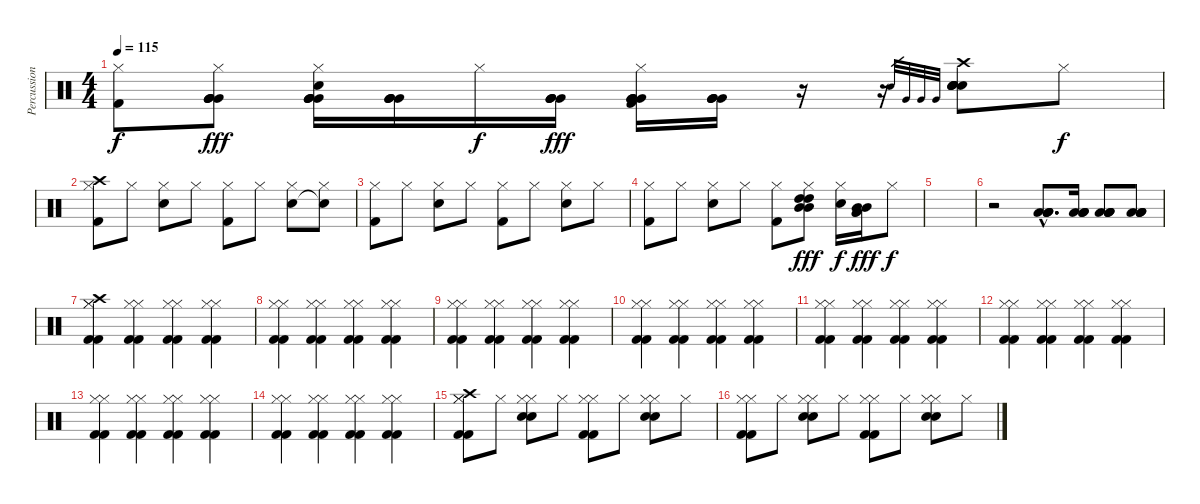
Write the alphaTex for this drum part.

\track ("Percussion" "Percussion") {instrument percussion}
\staff {score}
\articulation defaults
\ts (4 4)
\tempo 115
\clef neutral
\ks c
("Hi-Hat (closed)" "Kick (hit) 2").8{dy f} ("Hi-Hat (closed)" "Very Low Tom (hit)" "Very Low Tom (hit)" "Very Low Tom (hit)" "Very Low Tom (hit)").8{dy fff} ("Hi-Hat (closed)" "Electric Snare (hit)" "Very Low Tom (hit)" "Very Low Tom (hit)" "Very Low Tom (hit)" "Very Low Tom (hit)").16 ("Very Low Tom (hit)" "Very Low Tom (hit)" "Very Low Tom (hit)" "Very Low Tom (hit)").16 "Hi-Hat (closed)".16{dy f} ("Very Low Tom (hit)" "Very Low Tom (hit)" "Very Low Tom (hit)" "Very Low Tom (hit)").16{dy fff} ("Hi-Hat (closed)" "Kick (hit) 2" "Very Low Tom (hit)" "Very Low Tom (hit)" "Very Low Tom (hit)" "Very Low Tom (hit)").16 ("Very Low Tom (hit)" "Very Low Tom (hit)" "Very Low Tom (hit)" "Very Low Tom (hit)").16 r.16 r.16 "Snare (hit)".32{gr} "Very Low Tom (hit)".32{gr} "Very Low Tom (hit)".32{gr} "Very Low Tom (hit)".32{gr} ("Crash high (hit)" "Electric Snare (hit)" "Electric Snare (hit)" "Electric Snare (hit)" "Electric Snare (hit)" "Electric Snare (hit)").8 "Hi-Hat (closed)".8{dy f} |
("Hi-Hat (closed)" "Kick (hit) 2" "Crash high (hit)").8 "Hi-Hat (closed)".8 ("Hi-Hat (closed)" "Electric Snare (hit)").8 "Hi-Hat (closed)".8 ("Hi-Hat (closed)" "Kick (hit) 2").8 "Hi-Hat (closed)".8 ("Hi-Hat (closed)" "Electric Snare (hit)").8 ("Hi-Hat (closed)" "Snare (hit)"{t}).8 |
("Hi-Hat (closed)" "Kick (hit) 2").8 "Hi-Hat (closed)".8 ("Hi-Hat (closed)" "Electric Snare (hit)").8 "Hi-Hat (closed)".8 ("Hi-Hat (closed)" "Kick (hit) 2").8 "Hi-Hat (closed)".8 ("Hi-Hat (closed)" "Electric Snare (hit)").8 "Hi-Hat (closed)".8 |
("Hi-Hat (closed)" "Kick (hit) 2").8 "Hi-Hat (closed)".8 ("Hi-Hat (closed)" "Electric Snare (hit)").8 "Hi-Hat (closed)".8 ("Hi-Hat (closed)" "Kick (hit) 2").8 ("Hi-Hat (closed)" "High Tom (hit)" "High Tom (hit)" "Mid Tom (hit)" "Mid Tom (hit)").8{dy fff} ("Hi-Hat (closed)" "Electric Snare (hit)").16{dy f} ("Mid Tom (hit)" "Mid Tom (hit)" "Low Tom (hit)" "Low Tom (hit)").16{dy fff} "Hi-Hat (closed)".8{dy f} |
|
r.2 ("Low Tom (hit)"{hac} "Low Floor Tom (hit)"{hac} "Low Tom (hit)"{hac} "Low Floor Tom (hit)"{hac}).8{d} ("Low Tom (hit)" "Low Floor Tom (hit)" "Low Floor Tom (hit)" "Low Floor Tom (hit)").16 ("Low Floor Tom (hit)" "Low Floor Tom (hit)" "Low Floor Tom (hit)" "Low Floor Tom (hit)").8 ("Low Floor Tom (hit)" "Low Floor Tom (hit)" "Low Floor Tom (hit)" "Low Floor Tom (hit)").8 |
("Kick (hit) 2" "Kick (hit) 2" "Hi-Hat (closed)" "Hi-Hat (closed)" "Crash high (hit)").4 ("Kick (hit) 2" "Kick (hit) 2" "Hi-Hat (closed)" "Hi-Hat (closed)").4 ("Kick (hit) 2" "Kick (hit) 2" "Hi-Hat (closed)" "Hi-Hat (closed)").4 ("Kick (hit) 2" "Kick (hit) 2" "Hi-Hat (closed)" "Hi-Hat (closed)").4 |
("Kick (hit) 2" "Kick (hit) 2" "Hi-Hat (closed)" "Hi-Hat (closed)").4 ("Kick (hit) 2" "Kick (hit) 2" "Hi-Hat (closed)" "Hi-Hat (closed)").4 ("Kick (hit) 2" "Kick (hit) 2" "Hi-Hat (closed)" "Hi-Hat (closed)").4 ("Kick (hit) 2" "Kick (hit) 2" "Hi-Hat (closed)" "Hi-Hat (closed)").4 |
("Kick (hit) 2" "Kick (hit) 2" "Hi-Hat (closed)" "Hi-Hat (closed)").4 ("Kick (hit) 2" "Kick (hit) 2" "Hi-Hat (closed)" "Hi-Hat (closed)").4 ("Kick (hit) 2" "Kick (hit) 2" "Hi-Hat (closed)" "Hi-Hat (closed)").4 ("Kick (hit) 2" "Kick (hit) 2" "Hi-Hat (closed)" "Hi-Hat (closed)").4 |
("Kick (hit) 2" "Kick (hit) 2" "Hi-Hat (closed)" "Hi-Hat (closed)").4 ("Kick (hit) 2" "Kick (hit) 2" "Hi-Hat (closed)" "Hi-Hat (closed)").4 ("Kick (hit) 2" "Kick (hit) 2" "Hi-Hat (closed)" "Hi-Hat (closed)").4 ("Kick (hit) 2" "Kick (hit) 2" "Hi-Hat (closed)" "Hi-Hat (closed)").4 |
("Kick (hit) 2" "Kick (hit) 2" "Hi-Hat (closed)" "Hi-Hat (closed)").4 ("Kick (hit) 2" "Kick (hit) 2" "Hi-Hat (closed)" "Hi-Hat (closed)").4 ("Kick (hit) 2" "Kick (hit) 2" "Hi-Hat (closed)" "Hi-Hat (closed)").4 ("Kick (hit) 2" "Kick (hit) 2" "Hi-Hat (closed)" "Hi-Hat (closed)").4 |
("Kick (hit) 2" "Kick (hit) 2" "Hi-Hat (closed)" "Hi-Hat (closed)").4 ("Kick (hit) 2" "Kick (hit) 2" "Hi-Hat (closed)" "Hi-Hat (closed)").4 ("Kick (hit) 2" "Kick (hit) 2" "Hi-Hat (closed)" "Hi-Hat (closed)").4 ("Kick (hit) 2" "Kick (hit) 2" "Hi-Hat (closed)" "Hi-Hat (closed)").4 |
("Kick (hit) 2" "Kick (hit) 2" "Hi-Hat (closed)" "Hi-Hat (closed)").4 ("Kick (hit) 2" "Kick (hit) 2" "Hi-Hat (closed)" "Hi-Hat (closed)").4 ("Kick (hit) 2" "Kick (hit) 2" "Hi-Hat (closed)" "Hi-Hat (closed)").4 ("Kick (hit) 2" "Kick (hit) 2" "Hi-Hat (closed)" "Hi-Hat (closed)").4 |
("Kick (hit) 2" "Kick (hit) 2" "Hi-Hat (closed)" "Hi-Hat (closed)").4 ("Kick (hit) 2" "Kick (hit) 2" "Hi-Hat (closed)" "Hi-Hat (closed)").4 ("Kick (hit) 2" "Kick (hit) 2" "Hi-Hat (closed)" "Hi-Hat (closed)").4 ("Kick (hit) 2" "Kick (hit) 2" "Hi-Hat (closed)" "Hi-Hat (closed)").4 |
("Kick (hit) 2" "Kick (hit) 2" "Hi-Hat (closed)" "Hi-Hat (closed)" "Crash high (hit)").8 "Hi-Hat (closed)".8 ("Electric Snare (hit)" "Electric Snare (hit)" "Hi-Hat (closed)" "Hi-Hat (closed)").8 "Hi-Hat (closed)".8 ("Kick (hit) 2" "Kick (hit) 2" "Hi-Hat (closed)" "Hi-Hat (closed)").8 "Hi-Hat (closed)".8 ("Electric Snare (hit)" "Electric Snare (hit)" "Hi-Hat (closed)" "Hi-Hat (closed)").8 "Hi-Hat (closed)".8 |
("Kick (hit) 2" "Kick (hit) 2" "Hi-Hat (closed)" "Hi-Hat (closed)").8 "Hi-Hat (closed)".8 ("Electric Snare (hit)" "Electric Snare (hit)" "Hi-Hat (closed)" "Hi-Hat (closed)").8 "Hi-Hat (closed)".8 ("Kick (hit) 2" "Kick (hit) 2" "Hi-Hat (closed)" "Hi-Hat (closed)").8 "Hi-Hat (closed)".8 ("Electric Snare (hit)" "Electric Snare (hit)" "Hi-Hat (closed)" "Hi-Hat (closed)").8 "Hi-Hat (closed)".8
